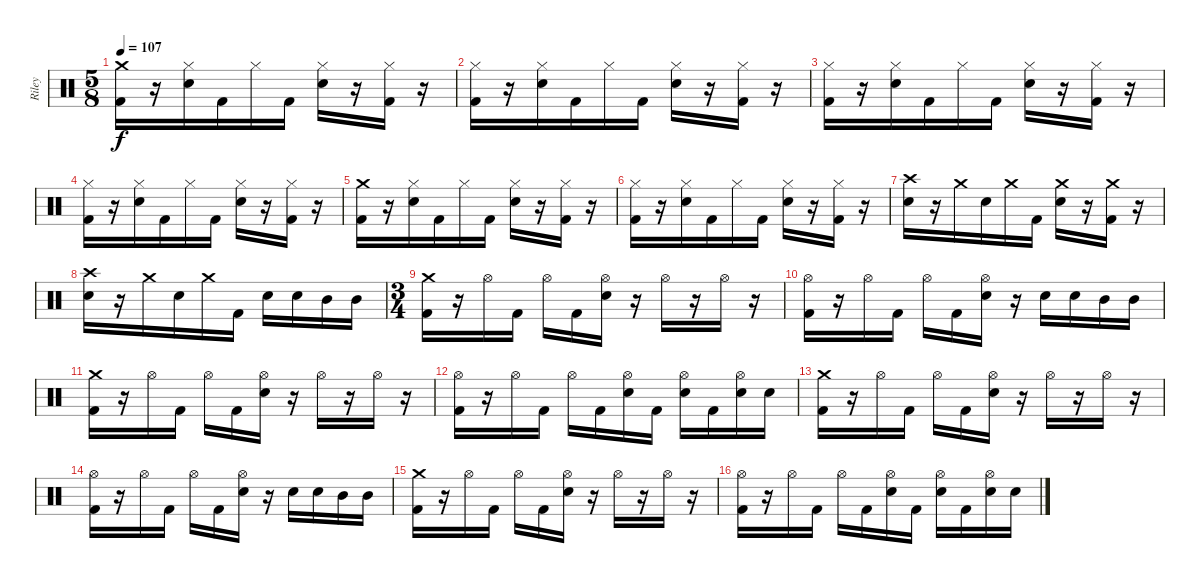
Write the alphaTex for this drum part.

\track ("Riley" "Riley") {instrument percussion}
\staff {score}
\articulation defaults
\ts (5 8)
\tempo 107
\clef neutral
\ks c
("Crash medium (hit)" "Kick (hit) 2").16{dy f} r.16 ("Hi-Hat (closed)" "Electric Snare (hit)").16 "Kick (hit) 2".16 "Hi-Hat (closed)".16 "Kick (hit) 2".16 ("Hi-Hat (closed)" "Electric Snare (hit)").16 r.16 ("Hi-Hat (closed)" "Kick (hit) 2").16 r.16 |
("Hi-Hat (closed)" "Kick (hit) 2").16 r.16 ("Hi-Hat (closed)" "Electric Snare (hit)").16 "Kick (hit) 2".16 "Hi-Hat (closed)".16 "Kick (hit) 2".16 ("Hi-Hat (closed)" "Electric Snare (hit)").16 r.16 ("Hi-Hat (closed)" "Kick (hit) 2").16 r.16 |
("Hi-Hat (closed)" "Kick (hit) 2").16 r.16 ("Hi-Hat (closed)" "Electric Snare (hit)").16 "Kick (hit) 2".16 "Hi-Hat (closed)".16 "Kick (hit) 2".16 ("Hi-Hat (closed)" "Electric Snare (hit)").16 r.16 ("Hi-Hat (closed)" "Kick (hit) 2").16 r.16 |
("Hi-Hat (closed)" "Kick (hit) 2").16 r.16 ("Hi-Hat (closed)" "Electric Snare (hit)").16 "Kick (hit) 2".16 "Hi-Hat (closed)".16 "Kick (hit) 2".16 ("Hi-Hat (closed)" "Electric Snare (hit)").16 r.16 ("Hi-Hat (closed)" "Kick (hit) 2").16 r.16 |
("Crash medium (hit)" "Kick (hit) 2").16 r.16 ("Hi-Hat (closed)" "Electric Snare (hit)").16 "Kick (hit) 2".16 "Hi-Hat (closed)".16 "Kick (hit) 2".16 ("Hi-Hat (closed)" "Electric Snare (hit)").16 r.16 ("Hi-Hat (closed)" "Kick (hit) 2").16 r.16 |
("Hi-Hat (closed)" "Kick (hit) 2").16 r.16 ("Hi-Hat (closed)" "Electric Snare (hit)").16 "Kick (hit) 2".16 "Hi-Hat (closed)".16 "Kick (hit) 2".16 ("Hi-Hat (closed)" "Electric Snare (hit)").16 r.16 ("Hi-Hat (closed)" "Kick (hit) 2").16 r.16 |
("Crash high (hit)" "Electric Snare (hit)").16 r.16 "Crash medium (hit)".16 "Electric Snare (hit)".16 "Crash medium (hit)".16 "Kick (hit) 2".16 ("Crash medium (hit)" "Electric Snare (hit)").16 r.16 ("Crash medium (hit)" "Kick (hit) 2").16 r.16 |
("Crash high (hit)" "Electric Snare (hit)").16 r.16 "Crash medium (hit)".16 "Electric Snare (hit)".16 "Crash medium (hit)".16 "Kick (hit) 2".16 "Electric Snare (hit)".16 "Electric Snare (hit)".16 "Mid Tom (hit)".16 "Mid Tom (hit)".16 |
\ts (3 4)
("Crash medium (hit)" "Kick (hit) 2").16 r.16 "Hi-Hat (open)".16 "Kick (hit) 2".16 "Hi-Hat (open)".16 "Kick (hit) 2".16 ("Hi-Hat (open)" "Electric Snare (hit)").16 r.16 "Hi-Hat (open)".16 r.16 "Hi-Hat (open)".16 r.16 |
("Hi-Hat (open)" "Kick (hit) 2").16 r.16 "Hi-Hat (open)".16 "Kick (hit) 2".16 "Hi-Hat (open)".16 "Kick (hit) 2".16 ("Hi-Hat (open)" "Electric Snare (hit)").16 r.16 "Electric Snare (hit)".16 "Electric Snare (hit)".16 "Mid Tom (hit)".16 "Mid Tom (hit)".16 |
("Crash medium (hit)" "Kick (hit) 2").16 r.16 "Hi-Hat (open)".16 "Kick (hit) 2".16 "Hi-Hat (open)".16 "Kick (hit) 2".16 ("Hi-Hat (open)" "Electric Snare (hit)").16 r.16 "Hi-Hat (open)".16 r.16 "Hi-Hat (open)".16 r.16 |
("Hi-Hat (open)" "Kick (hit) 2").16 r.16 "Hi-Hat (open)".16 "Kick (hit) 2".16 "Hi-Hat (open)".16 "Kick (hit) 2".16 ("Hi-Hat (open)" "Electric Snare (hit)").16 "Kick (hit) 2".16 ("Hi-Hat (open)" "Electric Snare (hit)").16 "Kick (hit) 2".16 ("Hi-Hat (open)" "Electric Snare (hit)").16 "Electric Snare (hit)".16 |
("Crash medium (hit)" "Kick (hit) 2").16 r.16 "Hi-Hat (open)".16 "Kick (hit) 2".16 "Hi-Hat (open)".16 "Kick (hit) 2".16 ("Hi-Hat (open)" "Electric Snare (hit)").16 r.16 "Hi-Hat (open)".16 r.16 "Hi-Hat (open)".16 r.16 |
("Hi-Hat (open)" "Kick (hit) 2").16 r.16 "Hi-Hat (open)".16 "Kick (hit) 2".16 "Hi-Hat (open)".16 "Kick (hit) 2".16 ("Hi-Hat (open)" "Electric Snare (hit)").16 r.16 "Electric Snare (hit)".16 "Electric Snare (hit)".16 "Mid Tom (hit)".16 "Mid Tom (hit)".16 |
("Crash medium (hit)" "Kick (hit) 2").16 r.16 "Hi-Hat (open)".16 "Kick (hit) 2".16 "Hi-Hat (open)".16 "Kick (hit) 2".16 ("Hi-Hat (open)" "Electric Snare (hit)").16 r.16 "Hi-Hat (open)".16 r.16 "Hi-Hat (open)".16 r.16 |
("Hi-Hat (open)" "Kick (hit) 2").16 r.16 "Hi-Hat (open)".16 "Kick (hit) 2".16 "Hi-Hat (open)".16 "Kick (hit) 2".16 ("Hi-Hat (open)" "Electric Snare (hit)").16 "Kick (hit) 2".16 ("Hi-Hat (open)" "Electric Snare (hit)").16 "Kick (hit) 2".16 ("Hi-Hat (open)" "Electric Snare (hit)").16 "Electric Snare (hit)".16
